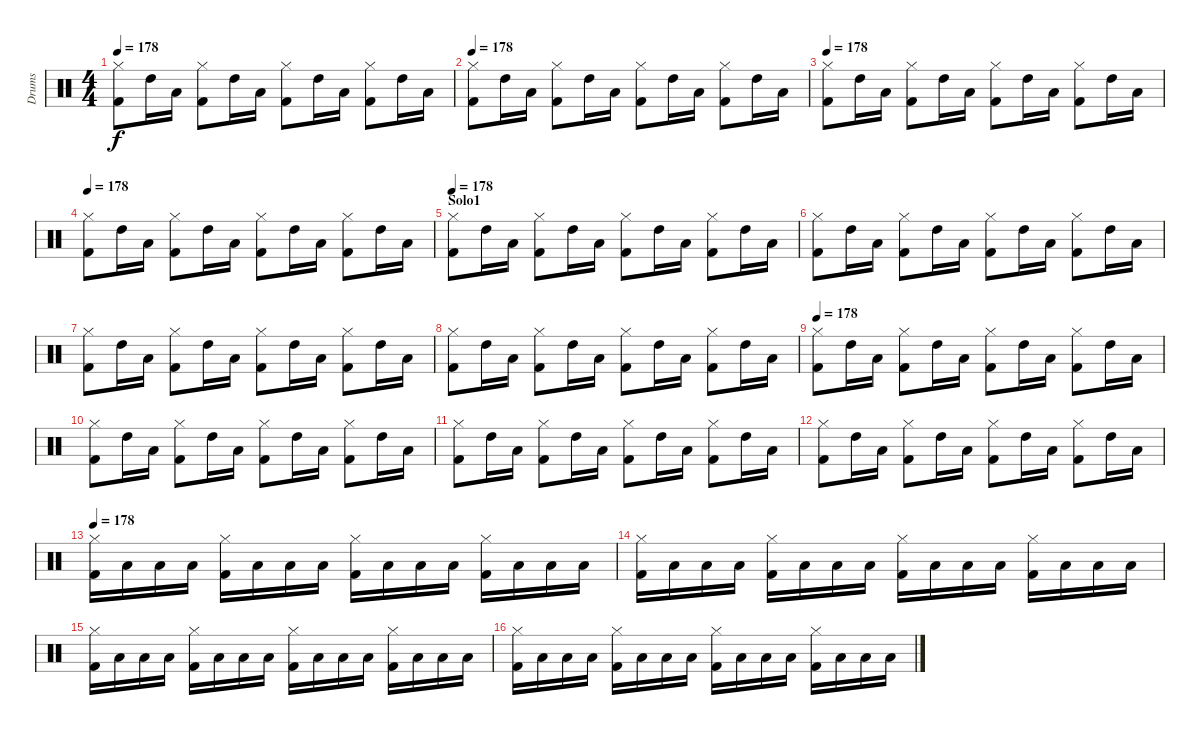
\track ("Drums" "Drums") {instrument percussion}
\staff {score}
\articulation defaults
\ts (4 4)
\tempo 178
\clef neutral
\ks c
("Hi-Hat (closed)" "Kick (hit) 2").8{dy f} "High Tom (hit)".16 "Low Tom (hit)".16 ("Hi-Hat (closed)" "Kick (hit) 2").8 "High Tom (hit)".16 "Low Tom (hit)".16 ("Hi-Hat (closed)" "Kick (hit) 2").8 "High Tom (hit)".16 "Low Tom (hit)".16 ("Hi-Hat (closed)" "Kick (hit) 2").8 "High Tom (hit)".16 "Low Tom (hit)".16 |
\tempo 178
("Hi-Hat (closed)" "Kick (hit) 2").8 "High Tom (hit)".16 "Low Tom (hit)".16 ("Hi-Hat (closed)" "Kick (hit) 2").8 "High Tom (hit)".16 "Low Tom (hit)".16 ("Hi-Hat (closed)" "Kick (hit) 2").8 "High Tom (hit)".16 "Low Tom (hit)".16 ("Hi-Hat (closed)" "Kick (hit) 2").8 "High Tom (hit)".16 "Low Tom (hit)".16 |
\tempo 178
("Hi-Hat (closed)" "Kick (hit) 2").8 "High Tom (hit)".16 "Low Tom (hit)".16 ("Hi-Hat (closed)" "Kick (hit) 2").8 "High Tom (hit)".16 "Low Tom (hit)".16 ("Hi-Hat (closed)" "Kick (hit) 2").8 "High Tom (hit)".16 "Low Tom (hit)".16 ("Hi-Hat (closed)" "Kick (hit) 2").8 "High Tom (hit)".16 "Low Tom (hit)".16 |
\tempo 178
("Hi-Hat (closed)" "Kick (hit) 2").8 "High Tom (hit)".16 "Low Tom (hit)".16 ("Hi-Hat (closed)" "Kick (hit) 2").8 "High Tom (hit)".16 "Low Tom (hit)".16 ("Hi-Hat (closed)" "Kick (hit) 2").8 "High Tom (hit)".16 "Low Tom (hit)".16 ("Hi-Hat (closed)" "Kick (hit) 2").8 "High Tom (hit)".16 "Low Tom (hit)".16 |
\section ("" "Solo1")
\tempo 178
("Hi-Hat (closed)" "Kick (hit) 2").8 "High Tom (hit)".16 "Low Tom (hit)".16 ("Hi-Hat (closed)" "Kick (hit) 2").8 "High Tom (hit)".16 "Low Tom (hit)".16 ("Hi-Hat (closed)" "Kick (hit) 2").8 "High Tom (hit)".16 "Low Tom (hit)".16 ("Hi-Hat (closed)" "Kick (hit) 2").8 "High Tom (hit)".16 "Low Tom (hit)".16 |
("Hi-Hat (closed)" "Kick (hit) 2").8 "High Tom (hit)".16 "Low Tom (hit)".16 ("Hi-Hat (closed)" "Kick (hit) 2").8 "High Tom (hit)".16 "Low Tom (hit)".16 ("Hi-Hat (closed)" "Kick (hit) 2").8 "High Tom (hit)".16 "Low Tom (hit)".16 ("Hi-Hat (closed)" "Kick (hit) 2").8 "High Tom (hit)".16 "Low Tom (hit)".16 |
("Hi-Hat (closed)" "Kick (hit) 2").8 "High Tom (hit)".16 "Low Tom (hit)".16 ("Hi-Hat (closed)" "Kick (hit) 2").8 "High Tom (hit)".16 "Low Tom (hit)".16 ("Hi-Hat (closed)" "Kick (hit) 2").8 "High Tom (hit)".16 "Low Tom (hit)".16 ("Hi-Hat (closed)" "Kick (hit) 2").8 "High Tom (hit)".16 "Low Tom (hit)".16 |
("Hi-Hat (closed)" "Kick (hit) 2").8 "High Tom (hit)".16 "Low Tom (hit)".16 ("Hi-Hat (closed)" "Kick (hit) 2").8 "High Tom (hit)".16 "Low Tom (hit)".16 ("Hi-Hat (closed)" "Kick (hit) 2").8 "High Tom (hit)".16 "Low Tom (hit)".16 ("Hi-Hat (closed)" "Kick (hit) 2").8 "High Tom (hit)".16 "Low Tom (hit)".16 |
\tempo 178
("Hi-Hat (closed)" "Kick (hit) 2").8 "High Tom (hit)".16 "Low Tom (hit)".16 ("Hi-Hat (closed)" "Kick (hit) 2").8 "High Tom (hit)".16 "Low Tom (hit)".16 ("Hi-Hat (closed)" "Kick (hit) 2").8 "High Tom (hit)".16 "Low Tom (hit)".16 ("Hi-Hat (closed)" "Kick (hit) 2").8 "High Tom (hit)".16 "Low Tom (hit)".16 |
("Hi-Hat (closed)" "Kick (hit) 2").8 "High Tom (hit)".16 "Low Tom (hit)".16 ("Hi-Hat (closed)" "Kick (hit) 2").8 "High Tom (hit)".16 "Low Tom (hit)".16 ("Hi-Hat (closed)" "Kick (hit) 2").8 "High Tom (hit)".16 "Low Tom (hit)".16 ("Hi-Hat (closed)" "Kick (hit) 2").8 "High Tom (hit)".16 "Low Tom (hit)".16 |
("Hi-Hat (closed)" "Kick (hit) 2").8 "High Tom (hit)".16 "Low Tom (hit)".16 ("Hi-Hat (closed)" "Kick (hit) 2").8 "High Tom (hit)".16 "Low Tom (hit)".16 ("Hi-Hat (closed)" "Kick (hit) 2").8 "High Tom (hit)".16 "Low Tom (hit)".16 ("Hi-Hat (closed)" "Kick (hit) 2").8 "High Tom (hit)".16 "Low Tom (hit)".16 |
("Hi-Hat (closed)" "Kick (hit) 2").8 "High Tom (hit)".16 "Low Tom (hit)".16 ("Hi-Hat (closed)" "Kick (hit) 2").8 "High Tom (hit)".16 "Low Tom (hit)".16 ("Hi-Hat (closed)" "Kick (hit) 2").8 "High Tom (hit)".16 "Low Tom (hit)".16 ("Hi-Hat (closed)" "Kick (hit) 2").8 "High Tom (hit)".16 "Low Tom (hit)".16 |
\tempo 178
("Kick (hit) 2" "Hi-Hat (closed)").16 "Low Tom (hit)".16 "Low Tom (hit)".16 "Low Tom (hit)".16 ("Kick (hit) 2" "Hi-Hat (closed)").16 "Low Tom (hit)".16 "Low Tom (hit)".16 "Low Tom (hit)".16 ("Kick (hit) 2" "Hi-Hat (closed)").16 "Low Tom (hit)".16 "Low Tom (hit)".16 "Low Tom (hit)".16 ("Hi-Hat (closed)" "Kick (hit) 2").16 "Low Tom (hit)".16 "Low Tom (hit)".16 "Low Tom (hit)".16 |
("Kick (hit) 2" "Hi-Hat (closed)").16 "Low Tom (hit)".16 "Low Tom (hit)".16 "Low Tom (hit)".16 ("Kick (hit) 2" "Hi-Hat (closed)").16 "Low Tom (hit)".16 "Low Tom (hit)".16 "Low Tom (hit)".16 ("Kick (hit) 2" "Hi-Hat (closed)").16 "Low Tom (hit)".16 "Low Tom (hit)".16 "Low Tom (hit)".16 ("Hi-Hat (closed)" "Kick (hit) 2").16 "Low Tom (hit)".16 "Low Tom (hit)".16 "Low Tom (hit)".16 |
("Kick (hit) 2" "Hi-Hat (closed)").16 "Low Tom (hit)".16 "Low Tom (hit)".16 "Low Tom (hit)".16 ("Kick (hit) 2" "Hi-Hat (closed)").16 "Low Tom (hit)".16 "Low Tom (hit)".16 "Low Tom (hit)".16 ("Kick (hit) 2" "Hi-Hat (closed)").16 "Low Tom (hit)".16 "Low Tom (hit)".16 "Low Tom (hit)".16 ("Hi-Hat (closed)" "Kick (hit) 2").16 "Low Tom (hit)".16 "Low Tom (hit)".16 "Low Tom (hit)".16 |
("Kick (hit) 2" "Hi-Hat (closed)").16 "Low Tom (hit)".16 "Low Tom (hit)".16 "Low Tom (hit)".16 ("Kick (hit) 2" "Hi-Hat (closed)").16 "Low Tom (hit)".16 "Low Tom (hit)".16 "Low Tom (hit)".16 ("Kick (hit) 2" "Hi-Hat (closed)").16 "Low Tom (hit)".16 "Low Tom (hit)".16 "Low Tom (hit)".16 ("Hi-Hat (closed)" "Kick (hit) 2").16 "Low Tom (hit)".16 "Low Tom (hit)".16 "Low Tom (hit)".16
